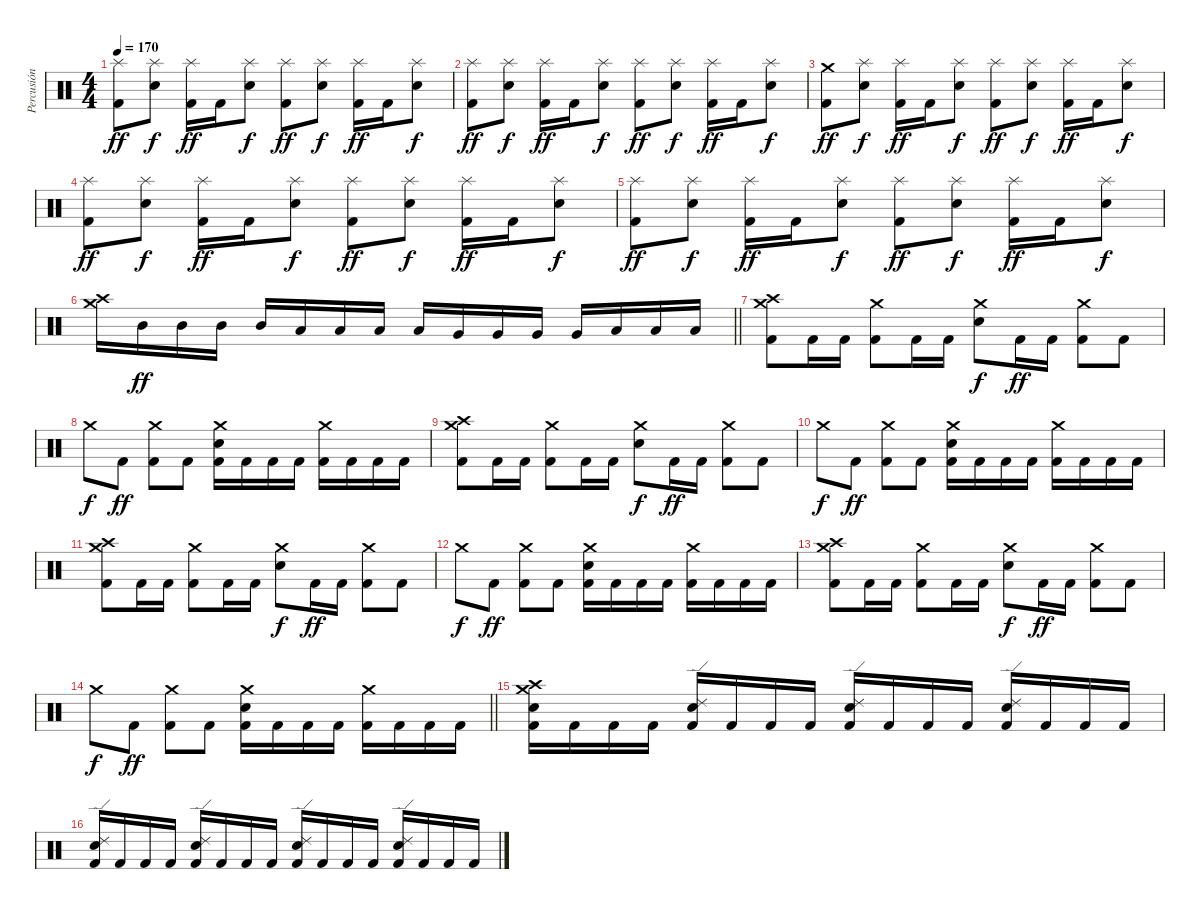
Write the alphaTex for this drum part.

\track ("Percusión" "Percusión") {instrument percussion}
\staff {score}
\articulation defaults
\ts (4 4)
\tempo 170
\clef neutral
\ks c
("Splash (hit)" "Kick (hit) 2").8{dy ff} ("Splash (hit)" "Snare (hit) 2").8{dy f} ("Splash (hit)" "Kick (hit) 2").16{dy ff} "Kick (hit) 2".16 ("Splash (hit)" "Snare (hit) 2").8{dy f} ("Splash (hit)" "Kick (hit) 2").8{dy ff} ("Splash (hit)" "Snare (hit) 2").8{dy f} ("Splash (hit)" "Kick (hit) 2").16{dy ff} "Kick (hit) 2".16 ("Splash (hit)" "Snare (hit) 2").8{dy f} |
("Splash (hit)" "Kick (hit) 2").8{dy ff} ("Splash (hit)" "Snare (hit) 2").8{dy f} ("Splash (hit)" "Kick (hit) 2").16{dy ff} "Kick (hit) 2".16 ("Splash (hit)" "Snare (hit) 2").8{dy f} ("Splash (hit)" "Kick (hit) 2").8{dy ff} ("Splash (hit)" "Snare (hit) 2").8{dy f} ("Splash (hit)" "Kick (hit) 2").16{dy ff} "Kick (hit) 2".16 ("Splash (hit)" "Snare (hit) 2").8{dy f} |
("Crash medium (hit)" "Kick (hit) 2").8{dy ff} ("Splash (hit)" "Snare (hit) 2").8{dy f} ("Splash (hit)" "Kick (hit) 2").16{dy ff} "Kick (hit) 2".16 ("Splash (hit)" "Snare (hit) 2").8{dy f} ("Splash (hit)" "Kick (hit) 2").8{dy ff} ("Splash (hit)" "Snare (hit) 2").8{dy f} ("Splash (hit)" "Kick (hit) 2").16{dy ff} "Kick (hit) 2".16 ("Splash (hit)" "Snare (hit) 2").8{dy f} |
("Splash (hit)" "Kick (hit) 2").8{dy ff} ("Splash (hit)" "Snare (hit) 2").8{dy f} ("Splash (hit)" "Kick (hit) 2").16{dy ff} "Kick (hit) 2".16 ("Splash (hit)" "Snare (hit) 2").8{dy f} ("Splash (hit)" "Kick (hit) 2").8{dy ff} ("Splash (hit)" "Snare (hit) 2").8{dy f} ("Splash (hit)" "Kick (hit) 2").16{dy ff} "Kick (hit) 2".16 ("Splash (hit)" "Snare (hit) 2").8{dy f} |
("Splash (hit)" "Kick (hit) 2").8{dy ff} ("Splash (hit)" "Snare (hit) 2").8{dy f} ("Splash (hit)" "Kick (hit) 2").16{dy ff} "Kick (hit) 2".16 ("Splash (hit)" "Snare (hit) 2").8{dy f} ("Splash (hit)" "Kick (hit) 2").8{dy ff} ("Splash (hit)" "Snare (hit) 2").8{dy f} ("Splash (hit)" "Kick (hit) 2").16{dy ff} "Kick (hit) 2".16 ("Splash (hit)" "Snare (hit) 2").8{dy f} |
\barLineRight lightlight
("Crash medium (hit)" "Crash high (hit)").16 "Mid Tom (hit)".16{dy ff} "Mid Tom (hit)".16 "Mid Tom (hit)".16 "Mid Tom (hit)".16 "Low Tom (hit)".16 "Low Tom (hit)".16 "Low Tom (hit)".16 "Low Tom (hit)".16 "Very Low Tom (hit)".16 "Very Low Tom (hit)".16 "Very Low Tom (hit)".16 "Very Low Tom (hit)".16 "Low Floor Tom (hit)".16 "Low Floor Tom (hit)".16 "Low Floor Tom (hit)".16 |
("Crash medium (hit)" "Crash high (hit)" "Kick (hit) 2").8 "Kick (hit) 2".16 "Kick (hit) 2".16 ("Crash medium (hit)" "Kick (hit) 2").8 "Kick (hit) 2".16 "Kick (hit) 2".16 ("Crash medium (hit)" "Snare (hit) 2").8{dy f} "Kick (hit) 2".16{dy ff} "Kick (hit) 2".16 ("Crash medium (hit)" "Kick (hit) 2").8 "Kick (hit) 2".8 |
"Crash medium (hit)".8{dy f} "Kick (hit) 2".8{dy ff} ("Crash medium (hit)" "Kick (hit) 2").8 "Kick (hit) 2".8 ("Crash medium (hit)" "Snare (hit) 2" "Kick (hit) 2").16 "Kick (hit) 2".16 "Kick (hit) 2".16 "Kick (hit) 2".16 ("Crash medium (hit)" "Kick (hit) 2").16 "Kick (hit) 2".16 "Kick (hit) 2".16 "Kick (hit) 2".16 |
("Crash medium (hit)" "Crash high (hit)" "Kick (hit) 2").8 "Kick (hit) 2".16 "Kick (hit) 2".16 ("Crash medium (hit)" "Kick (hit) 2").8 "Kick (hit) 2".16 "Kick (hit) 2".16 ("Crash medium (hit)" "Snare (hit) 2").8{dy f} "Kick (hit) 2".16{dy ff} "Kick (hit) 2".16 ("Crash medium (hit)" "Kick (hit) 2").8 "Kick (hit) 2".8 |
"Crash medium (hit)".8{dy f} "Kick (hit) 2".8{dy ff} ("Crash medium (hit)" "Kick (hit) 2").8 "Kick (hit) 2".8 ("Crash medium (hit)" "Snare (hit) 2" "Kick (hit) 2").16 "Kick (hit) 2".16 "Kick (hit) 2".16 "Kick (hit) 2".16 ("Crash medium (hit)" "Kick (hit) 2").16 "Kick (hit) 2".16 "Kick (hit) 2".16 "Kick (hit) 2".16 |
("Crash medium (hit)" "Crash high (hit)" "Kick (hit) 2").8 "Kick (hit) 2".16 "Kick (hit) 2".16 ("Crash medium (hit)" "Kick (hit) 2").8 "Kick (hit) 2".16 "Kick (hit) 2".16 ("Crash medium (hit)" "Snare (hit) 2").8{dy f} "Kick (hit) 2".16{dy ff} "Kick (hit) 2".16 ("Crash medium (hit)" "Kick (hit) 2").8 "Kick (hit) 2".8 |
"Crash medium (hit)".8{dy f} "Kick (hit) 2".8{dy ff} ("Crash medium (hit)" "Kick (hit) 2").8 "Kick (hit) 2".8 ("Crash medium (hit)" "Snare (hit) 2" "Kick (hit) 2").16 "Kick (hit) 2".16 "Kick (hit) 2".16 "Kick (hit) 2".16 ("Crash medium (hit)" "Kick (hit) 2").16 "Kick (hit) 2".16 "Kick (hit) 2".16 "Kick (hit) 2".16 |
("Crash medium (hit)" "Crash high (hit)" "Kick (hit) 2").8 "Kick (hit) 2".16 "Kick (hit) 2".16 ("Crash medium (hit)" "Kick (hit) 2").8 "Kick (hit) 2".16 "Kick (hit) 2".16 ("Crash medium (hit)" "Snare (hit) 2").8{dy f} "Kick (hit) 2".16{dy ff} "Kick (hit) 2".16 ("Crash medium (hit)" "Kick (hit) 2").8 "Kick (hit) 2".8 |
\barLineRight lightlight "Crash medium (hit)".8{dy f} "Kick (hit) 2".8{dy ff}
("Crash medium (hit)" "Kick (hit) 2").8 "Kick (hit) 2".8 ("Crash medium (hit)" "Snare (hit) 2" "Kick (hit) 2").16 "Kick (hit) 2".16 "Kick (hit) 2".16 "Kick (hit) 2".16 ("Crash medium (hit)" "Kick (hit) 2").16 "Kick (hit) 2".16 "Kick (hit) 2".16 "Kick (hit) 2".16 |
("Crash medium (hit)" "Crash high (hit)" "Snare (hit) 2" "Kick (hit) 2").16 "Kick (hit) 2".16 "Kick (hit) 2".16 "Kick (hit) 2".16 ("Ride (edge) 2" "Snare (hit) 2" "Kick (hit) 2").16 "Kick (hit) 2".16 "Kick (hit) 2".16 "Kick (hit) 2".16 ("Ride (edge) 2" "Snare (hit) 2" "Kick (hit) 2").16 "Kick (hit) 2".16 "Kick (hit) 2".16 "Kick (hit) 2".16 ("Ride (edge) 2" "Snare (hit) 2" "Kick (hit) 2").16 "Kick (hit) 2".16 "Kick (hit) 2".16 "Kick (hit) 2".16 |
("Ride (edge) 2" "Snare (hit) 2" "Kick (hit) 2").16 "Kick (hit) 2".16 "Kick (hit) 2".16 "Kick (hit) 2".16 ("Ride (edge) 2" "Snare (hit) 2" "Kick (hit) 2").16 "Kick (hit) 2".16 "Kick (hit) 2".16 "Kick (hit) 2".16 ("Ride (edge) 2" "Snare (hit) 2" "Kick (hit) 2").16 "Kick (hit) 2".16 "Kick (hit) 2".16 "Kick (hit) 2".16 ("Ride (edge) 2" "Snare (hit) 2" "Kick (hit) 2").16 "Kick (hit) 2".16 "Kick (hit) 2".16 "Kick (hit) 2".16
